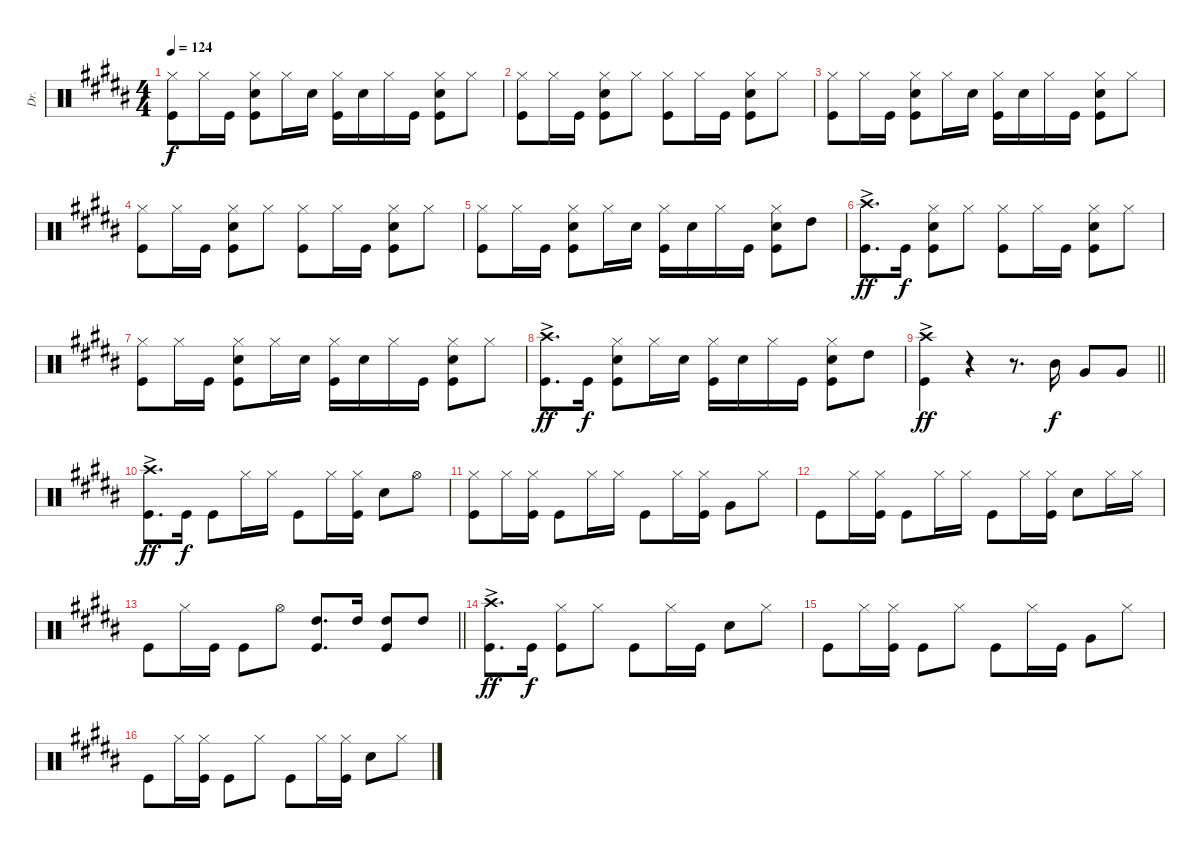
\track ("Dr." "Dr.") {instrument percussion}
\staff {score}
\articulation defaults
\ts (4 4)
\tempo 124
\clef neutral
\ks b
("Hi-Hat (closed)" "Kick (hit)").8{dy f} "Hi-Hat (closed)".16 "Kick (hit)".16 ("Hi-Hat (closed)" "Kick (hit)" "Snare (hit) 2").8 "Hi-Hat (closed)".16 "Snare (hit) 2".16 ("Kick (hit)" "Hi-Hat (closed)").16 "Snare (hit) 2".16 "Hi-Hat (closed)".16 "Kick (hit)".16 ("Hi-Hat (closed)" "Kick (hit)" "Snare (hit) 2").8 "Hi-Hat (closed)".8 |
("Kick (hit)" "Hi-Hat (closed)").8 "Hi-Hat (closed)".16 "Kick (hit)".16 ("Kick (hit)" "Snare (hit) 2" "Hi-Hat (closed)").8 "Hi-Hat (closed)".8 ("Hi-Hat (closed)" "Kick (hit)").8 "Hi-Hat (closed)".16 "Kick (hit)".16 ("Hi-Hat (closed)" "Kick (hit)" "Snare (hit) 2").8 "Hi-Hat (closed)".8 |
("Hi-Hat (closed)" "Kick (hit)").8 "Hi-Hat (closed)".16 "Kick (hit)".16 ("Hi-Hat (closed)" "Kick (hit)" "Snare (hit) 2").8 "Hi-Hat (closed)".16 "Snare (hit) 2".16 ("Kick (hit)" "Hi-Hat (closed)").16 "Snare (hit) 2".16 "Hi-Hat (closed)".16 "Kick (hit)".16 ("Hi-Hat (closed)" "Kick (hit)" "Snare (hit) 2").8 "Hi-Hat (closed)".8 |
("Kick (hit)" "Hi-Hat (closed)").8 "Hi-Hat (closed)".16 "Kick (hit)".16 ("Kick (hit)" "Snare (hit) 2" "Hi-Hat (closed)").8 "Hi-Hat (closed)".8 ("Hi-Hat (closed)" "Kick (hit)").8 "Hi-Hat (closed)".16 "Kick (hit)".16 ("Hi-Hat (closed)" "Kick (hit)" "Snare (hit) 2").8 "Hi-Hat (closed)".8 |
("Hi-Hat (closed)" "Kick (hit)").8 "Hi-Hat (closed)".16 "Kick (hit)".16 ("Hi-Hat (closed)" "Kick (hit)" "Snare (hit) 2").8 "Hi-Hat (closed)".16 "Snare (hit) 2".16 ("Kick (hit)" "Hi-Hat (closed)").16 "Snare (hit) 2".16 "Hi-Hat (closed)".16 "Kick (hit)".16 ("Hi-Hat (closed)" "Kick (hit)" "Snare (hit) 2").8 "High Tom (hit)".8 |
("Crash high (hit)"{ac} "Kick (hit)"{ac}).8{d dy ff} "Kick (hit)".16{dy f} ("Kick (hit)" "Snare (hit) 2" "Hi-Hat (closed)").8 "Hi-Hat (closed)".8 ("Kick (hit)" "Hi-Hat (closed)").8 "Hi-Hat (closed)".16 "Kick (hit)".16 ("Kick (hit)" "Snare (hit) 2" "Hi-Hat (closed)").8 "Hi-Hat (closed)".8 |
("Hi-Hat (closed)" "Kick (hit)").8 "Hi-Hat (closed)".16 "Kick (hit)".16 ("Hi-Hat (closed)" "Kick (hit)" "Snare (hit) 2").8 "Hi-Hat (closed)".16 "Snare (hit) 2".16 ("Kick (hit)" "Hi-Hat (closed)").16 "Snare (hit) 2".16 "Hi-Hat (closed)".16 "Kick (hit)".16 ("Hi-Hat (closed)" "Kick (hit)" "Snare (hit) 2").8 "Hi-Hat (closed)".8 |
("Crash high (hit)"{ac} "Kick (hit)"{ac}).8{d dy ff} "Kick (hit)".16{dy f} ("Kick (hit)" "Snare (hit) 2" "Hi-Hat (closed)").8 "Hi-Hat (closed)".16 "Snare (hit) 2".16 ("Kick (hit)" "Hi-Hat (closed)").16 "Snare (hit) 2".16 "Hi-Hat (closed)".16 "Kick (hit)".16 ("Hi-Hat (closed)" "Kick (hit)" "Snare (hit) 2").8 "High Tom (hit)".8 |
\barLineRight lightlight
("Crash high (hit)"{ac} "Kick (hit)"{ac}).4{dy ff} r.4 r.8{d} "Mid Tom (hit)".16{dy f} "Very Low Tom (hit)".8 "Very Low Tom (hit)".8 |
("Crash high (hit)"{ac} "Kick (hit)"{ac}).8{d dy ff} "Kick (hit)".16{dy f} "Kick (hit)".8 "Hi-Hat (closed)".16 "Hi-Hat (closed)".16 "Kick (hit)".8 "Hi-Hat (closed)".16 ("Hi-Hat (closed)" "Kick (hit)").16 "Snare (hit) 2".8 "Hi-Hat (open)".8 |
("Hi-Hat (closed)" "Kick (hit)").8 "Hi-Hat (closed)".16 ("Hi-Hat (closed)" "Kick (hit)").16 "Kick (hit)".8 "Hi-Hat (closed)".16 "Hi-Hat (closed)".16 "Kick (hit)".8 "Hi-Hat (closed)".16 ("Hi-Hat (closed)" "Kick (hit)").16 "Very Low Tom (hit)".8 "Hi-Hat (closed)".8 |
"Kick (hit)".8 "Hi-Hat (closed)".16 ("Hi-Hat (closed)" "Kick (hit)").16 "Kick (hit)".8 "Hi-Hat (closed)".16 "Hi-Hat (closed)".16 "Kick (hit)".8 "Hi-Hat (closed)".16 ("Hi-Hat (closed)" "Kick (hit)").16 "Snare (hit) 2".8 "Hi-Hat (closed)".16 "Hi-Hat (closed)".16 |
\barLineRight lightlight "Kick (hit)".8 "Hi-Hat (closed)".16 "Kick (hit)".16 "Kick (hit)".8 "Hi-Hat (open)".8
("Kick (hit)" "High Tom (hit)").8{d} "High Tom (hit)".16 ("High Tom (hit)" "Kick (hit)").8 "High Tom (hit)".8 |
("Crash high (hit)"{ac} "Kick (hit)"{ac}).8{d dy ff} "Kick (hit)".16{dy f} ("Kick (hit)" "Hi-Hat (closed)").8 "Hi-Hat (closed)".8 "Kick (hit)".8 "Hi-Hat (closed)".16 "Kick (hit)".16 "Snare (hit) 2".8 "Hi-Hat (closed)".8 |
"Kick (hit)".8 "Hi-Hat (closed)".16 ("Hi-Hat (closed)" "Kick (hit)").16 "Kick (hit)".8 "Hi-Hat (closed)".8 "Kick (hit)".8 "Hi-Hat (closed)".16 "Kick (hit)".16 "Very Low Tom (hit)".8 "Hi-Hat (closed)".8 |
"Kick (hit)".8 "Hi-Hat (closed)".16 ("Hi-Hat (closed)" "Kick (hit)").16 "Kick (hit)".8 "Hi-Hat (closed)".8 "Kick (hit)".8 "Hi-Hat (closed)".16 ("Kick (hit)" "Hi-Hat (closed)").16 "Snare (hit) 2".8 "Hi-Hat (closed)".8
